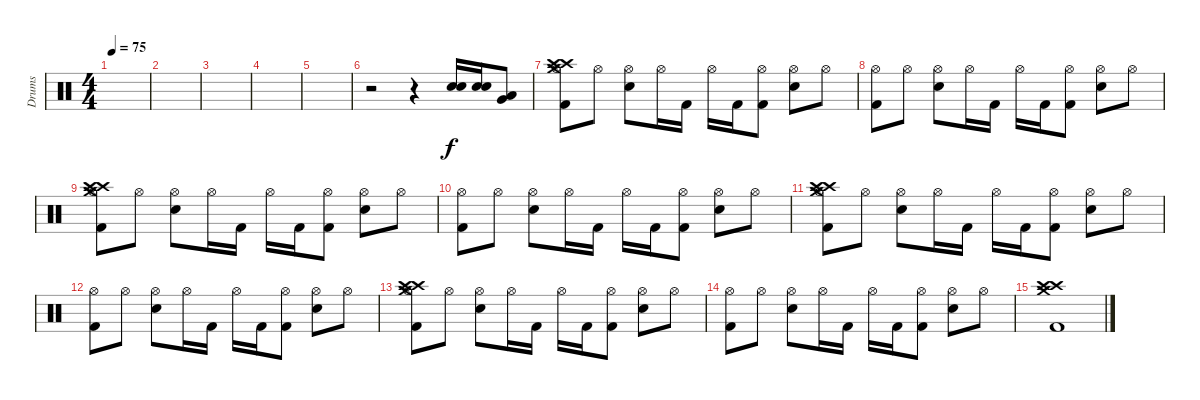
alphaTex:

\track ("Drums" "Drums") {instrument percussion}
\staff {score}
\articulation defaults
\ts (4 4)
\tempo 75
\clef neutral
\ks c
|
|
|
|
|
r.2 r.4 ("Electric Snare (hit)" "Electric Snare (hit)").16 ("Electric Snare (hit)" "Electric Snare (hit)").16 ("Low Tom (hit)" "Very Low Tom (hit)").8 |
("Crash high (hit)" "Crash medium (hit)" "Crash high (hit)" "Hi-Hat (open)" "Kick (hit) 2").8 "Hi-Hat (open)".8 ("Hi-Hat (open)" "Electric Snare (hit)").8 "Hi-Hat (open)".16 "Kick (hit) 2".16 "Hi-Hat (open)".16 "Kick (hit) 2".16 ("Hi-Hat (open)" "Kick (hit) 2").8 ("Hi-Hat (open)" "Electric Snare (hit)").8 "Hi-Hat (open)".8 |
("Hi-Hat (open)" "Kick (hit) 2").8 "Hi-Hat (open)".8 ("Hi-Hat (open)" "Electric Snare (hit)").8 "Hi-Hat (open)".16 "Kick (hit) 2".16 "Hi-Hat (open)".16 "Kick (hit) 2".16 ("Hi-Hat (open)" "Kick (hit) 2").8 ("Hi-Hat (open)" "Electric Snare (hit)").8 "Hi-Hat (open)".8 |
("Crash high (hit)" "Crash medium (hit)" "Crash high (hit)" "Hi-Hat (open)" "Kick (hit) 2").8 "Hi-Hat (open)".8 ("Hi-Hat (open)" "Electric Snare (hit)").8 "Hi-Hat (open)".16 "Kick (hit) 2".16 "Hi-Hat (open)".16 "Kick (hit) 2".16 ("Hi-Hat (open)" "Kick (hit) 2").8 ("Hi-Hat (open)" "Electric Snare (hit)").8 "Hi-Hat (open)".8 |
("Hi-Hat (open)" "Kick (hit) 2").8 "Hi-Hat (open)".8 ("Hi-Hat (open)" "Electric Snare (hit)").8 "Hi-Hat (open)".16 "Kick (hit) 2".16 "Hi-Hat (open)".16 "Kick (hit) 2".16 ("Hi-Hat (open)" "Kick (hit) 2").8 ("Hi-Hat (open)" "Electric Snare (hit)").8 "Hi-Hat (open)".8 |
("Crash high (hit)" "Crash medium (hit)" "Crash high (hit)" "Hi-Hat (open)" "Kick (hit) 2").8 "Hi-Hat (open)".8 ("Hi-Hat (open)" "Electric Snare (hit)").8 "Hi-Hat (open)".16 "Kick (hit) 2".16 "Hi-Hat (open)".16 "Kick (hit) 2".16 ("Hi-Hat (open)" "Kick (hit) 2").8 ("Hi-Hat (open)" "Electric Snare (hit)").8 "Hi-Hat (open)".8 |
("Hi-Hat (open)" "Kick (hit) 2").8 "Hi-Hat (open)".8 ("Hi-Hat (open)" "Electric Snare (hit)").8 "Hi-Hat (open)".16 "Kick (hit) 2".16 "Hi-Hat (open)".16 "Kick (hit) 2".16 ("Hi-Hat (open)" "Kick (hit) 2").8 ("Hi-Hat (open)" "Electric Snare (hit)").8 "Hi-Hat (open)".8 |
("Crash high (hit)" "Crash medium (hit)" "Crash high (hit)" "Hi-Hat (open)" "Kick (hit) 2").8 "Hi-Hat (open)".8 ("Hi-Hat (open)" "Electric Snare (hit)").8 "Hi-Hat (open)".16 "Kick (hit) 2".16 "Hi-Hat (open)".16 "Kick (hit) 2".16 ("Hi-Hat (open)" "Kick (hit) 2").8 ("Hi-Hat (open)" "Electric Snare (hit)").8 "Hi-Hat (open)".8 |
("Hi-Hat (open)" "Kick (hit) 2").8 "Hi-Hat (open)".8 ("Hi-Hat (open)" "Electric Snare (hit)").8 "Hi-Hat (open)".16 "Kick (hit) 2".16 "Hi-Hat (open)".16 "Kick (hit) 2".16 ("Hi-Hat (open)" "Kick (hit) 2").8 ("Hi-Hat (open)" "Electric Snare (hit)").8 "Hi-Hat (open)".8 |
("Crash high (hit)" "Crash high (hit)" "Crash medium (hit)" "Kick (hit) 2").1
